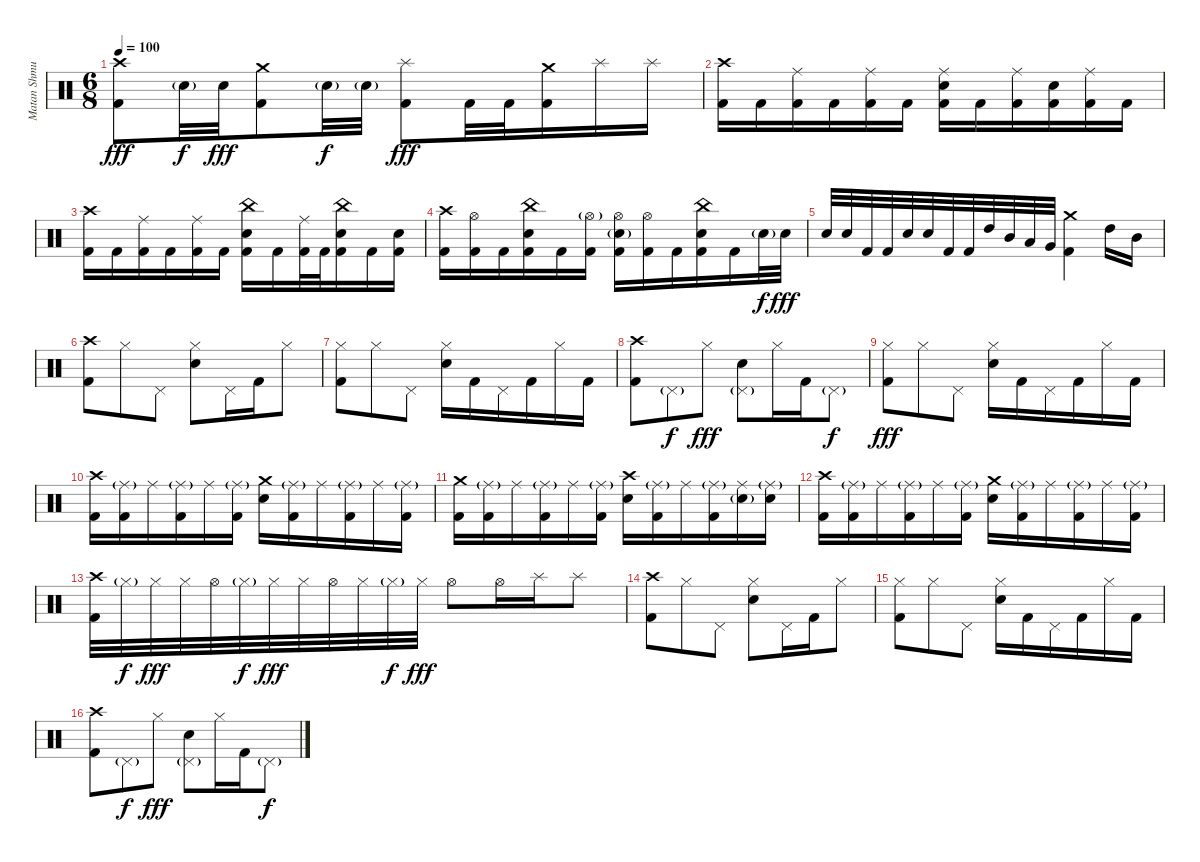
\track ("Matan Shmuely" "Matan Shmu") {instrument percussion}
\staff {score}
\articulation defaults
\ts (6 8)
\tempo 100
\clef neutral
\ks c
("Kick (hit) 2" "Crash high (hit)").8{dy fff} "Electric Snare (hit)"{g}.32{dy f} "Electric Snare (hit)".32{dy fff} ("Kick (hit) 2" "Crash medium (hit)").8 "Electric Snare (hit)"{g}.32{dy f} "Electric Snare (hit)"{g}.32 ("Kick (hit) 2" "Splash (hit)").8{dy fff} "Kick (hit) 2".32 "Kick (hit) 2".32 ("Kick (hit) 2" "Crash medium (hit)").16 "Splash (hit)".16 "Splash (hit)".16 |
("Kick (hit) 2" "Crash high (hit)").16 "Kick (hit) 2".16 ("Kick (hit) 2" "Ride (middle)").16 "Kick (hit) 2".16 ("Kick (hit) 2" "Ride (middle)").16 "Kick (hit) 2".16 ("Kick (hit) 2" "Electric Snare (hit)" "Ride (middle)").16 "Kick (hit) 2".16 ("Kick (hit) 2" "Ride (middle)").16 ("Kick (hit) 2" "Electric Snare (hit)").16 ("Kick (hit) 2" "Ride (middle)").16 "Kick (hit) 2".16 |
("Kick (hit) 2" "Crash high (hit)").16 "Kick (hit) 2".16 ("Kick (hit) 2" "Ride (middle)").16 "Kick (hit) 2".16 ("Kick (hit) 2" "Ride (middle)").16 "Kick (hit) 2".16 ("Kick (hit) 2" "Electric Snare (hit)" "China (hit)").16 "Kick (hit) 2".16 ("Kick (hit) 2" "Ride (middle)").32 "Kick (hit) 2".32 ("Kick (hit) 2" "Electric Snare (hit)" "China (hit)").16 "Kick (hit) 2".16 ("Kick (hit) 2" "Electric Snare (hit)").16 |
("Kick (hit) 2" "Crash high (hit)").16 ("Kick (hit) 2" "Hi-Hat (open)").16 "Kick (hit) 2".16 ("Kick (hit) 2" "Electric Snare (hit)" "China (hit)").16 "Kick (hit) 2".16 ("Kick (hit) 2" "Hi-Hat (open)"{g}).16 ("Kick (hit) 2" "Electric Snare (hit)"{g} "Hi-Hat (open)").16 ("Kick (hit) 2" "Hi-Hat (open)").16 "Kick (hit) 2".16 ("Kick (hit) 2" "Electric Snare (hit)" "China (hit)").16 "Kick (hit) 2".16 "Electric Snare (hit)"{g}.32{dy f} "Electric Snare (hit)".32{dy fff} |
"Electric Snare (hit)".32 "Electric Snare (hit)".32 "Kick (hit) 2".32 "Kick (hit) 2".32 "Electric Snare (hit)".32 "Electric Snare (hit)".32 "Kick (hit) 2".32 "Kick (hit) 2".32 "High Tom (hit)".32 "Mid Tom (hit)".32 "Low Tom (hit)".32 "Very Low Tom (hit)".32 ("Kick (hit) 2" "Crash medium (hit)").4 "High Tom (hit)".16 "Mid Tom (hit)".16 |
("Kick (hit) 2" "Crash high (hit)").8 "Hi-Hat (closed)".8 "Pedal Hi-Hat (hit)".8 ("Electric Snare (hit)" "Hi-Hat (closed)").8 "Pedal Hi-Hat (hit)".16 "Kick (hit) 2".16 "Hi-Hat (closed)".8 |
("Kick (hit) 2" "Hi-Hat (closed)").8 "Hi-Hat (closed)".8 "Pedal Hi-Hat (hit)".8 ("Electric Snare (hit)" "Hi-Hat (closed)").16 "Kick (hit) 2".16 "Pedal Hi-Hat (hit)".16 "Kick (hit) 2".16 "Hi-Hat (closed)".16 "Kick (hit) 2".16 |
("Kick (hit) 2" "Crash high (hit)").8 "Pedal Hi-Hat (hit)"{g}.8{dy f} "Hi-Hat (closed)".8{dy fff} ("Electric Snare (hit)" "Pedal Hi-Hat (hit)"{g}).8 "Hi-Hat (closed)".16 "Kick (hit) 2".16 "Pedal Hi-Hat (hit)"{g}.8{dy f} |
("Kick (hit) 2" "Hi-Hat (closed)").8{dy fff} "Hi-Hat (closed)".8 "Pedal Hi-Hat (hit)".8 ("Electric Snare (hit)" "Hi-Hat (closed)").16 "Kick (hit) 2".16 "Pedal Hi-Hat (hit)".16 "Kick (hit) 2".16 "Hi-Hat (closed)".16 "Kick (hit) 2".16 |
("Kick (hit) 2" "Crash high (hit)").16 ("Kick (hit) 2" "Ride (middle)"{g}).16 "Ride (middle)".16 ("Kick (hit) 2" "Ride (middle)"{g}).16 "Ride (middle)".16 ("Kick (hit) 2" "Ride (middle)"{g}).16 ("Electric Snare (hit)" "Crash medium (hit)").16 ("Kick (hit) 2" "Ride (middle)"{g}).16 "Ride (middle)".16 ("Kick (hit) 2" "Ride (middle)"{g}).16 "Ride (middle)".16 ("Kick (hit) 2" "Ride (middle)"{g}).16 |
("Kick (hit) 2" "Crash medium (hit)").16 ("Kick (hit) 2" "Ride (middle)"{g}).16 "Ride (middle)".16 ("Kick (hit) 2" "Ride (middle)"{g}).16 "Ride (middle)".16 ("Kick (hit) 2" "Ride (middle)"{g}).16 ("Electric Snare (hit)" "Crash high (hit)").16 ("Kick (hit) 2" "Ride (middle)"{g}).16 "Ride (middle)".16 ("Kick (hit) 2" "Ride (middle)"{g}).16 ("Electric Snare (hit)"{g} "Ride (middle)").16 ("Electric Snare (hit)" "Ride (middle)"{g}).16 |
("Kick (hit) 2" "Crash high (hit)").16 ("Kick (hit) 2" "Ride (middle)"{g}).16 "Ride (middle)".16 ("Kick (hit) 2" "Ride (middle)"{g}).16 "Ride (middle)".16 ("Kick (hit) 2" "Ride (middle)"{g}).16 ("Electric Snare (hit)" "Crash medium (hit)").16 ("Kick (hit) 2" "Ride (middle)"{g}).16 "Ride (middle)".16 ("Kick (hit) 2" "Ride (middle)"{g}).16 "Ride (middle)".16 ("Kick (hit) 2" "Ride (middle)"{g}).16 |
("Kick (hit) 2" "Crash high (hit)").32 "Hi-Hat (closed)"{g}.32{dy f} "Hi-Hat (closed)".32{dy fff} "Hi-Hat (closed)".32 "Hi-Hat (open)".32 "Hi-Hat (closed)"{g}.32{dy f} "Hi-Hat (closed)".32{dy fff} "Hi-Hat (closed)".32 "Hi-Hat (open)".32 "Hi-Hat (closed)".32 "Hi-Hat (closed)"{g}.32{dy f} "Hi-Hat (closed)".32{dy fff} "Hi-Hat (open)".8 "Hi-Hat (open)".16 "Splash (hit)".16 "Splash (hit)".8 |
("Kick (hit) 2" "Crash high (hit)").8 "Hi-Hat (closed)".8 "Pedal Hi-Hat (hit)".8 ("Electric Snare (hit)" "Hi-Hat (closed)").8 "Pedal Hi-Hat (hit)".16 "Kick (hit) 2".16 "Hi-Hat (closed)".8 |
("Kick (hit) 2" "Hi-Hat (closed)").8 "Hi-Hat (closed)".8 "Pedal Hi-Hat (hit)".8 ("Electric Snare (hit)" "Hi-Hat (closed)").16 "Kick (hit) 2".16 "Pedal Hi-Hat (hit)".16 "Kick (hit) 2".16 "Hi-Hat (closed)".16 "Kick (hit) 2".16 |
("Kick (hit) 2" "Crash high (hit)").8 "Pedal Hi-Hat (hit)"{g}.8{dy f} "Hi-Hat (closed)".8{dy fff} ("Electric Snare (hit)" "Pedal Hi-Hat (hit)"{g}).8 "Hi-Hat (closed)".16 "Kick (hit) 2".16 "Pedal Hi-Hat (hit)"{g}.8{dy f}
